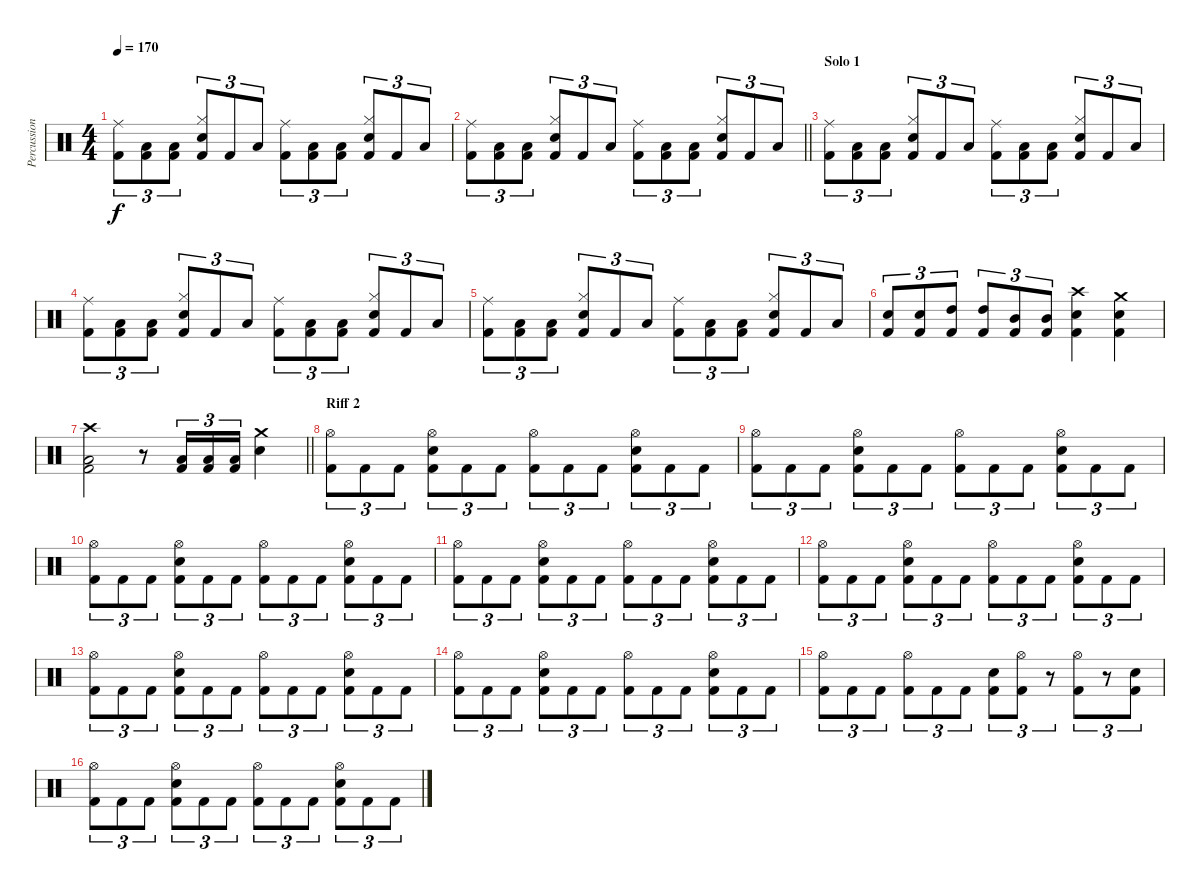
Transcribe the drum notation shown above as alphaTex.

\track ("Percussions" "Percussion") {instrument percussion}
\staff {score}
\articulation defaults
\ts (4 4)
\tempo 170
\clef neutral
\ks c
("Ride (middle)" "Kick (hit) 2").8{tu (3 2) dy f} ("Low Floor Tom (hit)" "Kick (hit) 2").8{tu (3 2)} ("Low Floor Tom (hit)" "Kick (hit) 2").8{tu (3 2)} ("Hi-Hat (closed)" "Snare (hit) 2" "Kick (hit) 2").8{tu (3 2)} "Kick (hit) 2".8{tu (3 2)} "Low Floor Tom (hit)".8{tu (3 2)} ("Ride (middle)" "Kick (hit) 2").8{tu (3 2)} ("Low Floor Tom (hit)" "Kick (hit) 2").8{tu (3 2)} ("Low Floor Tom (hit)" "Kick (hit) 2").8{tu (3 2)} ("Hi-Hat (closed)" "Snare (hit) 2" "Kick (hit) 2").8{tu (3 2)} "Kick (hit) 2".8{tu (3 2)} "Low Floor Tom (hit)".8{tu (3 2)} |
\barLineRight lightlight
("Ride (middle)" "Kick (hit) 2").8{tu (3 2)} ("Low Floor Tom (hit)" "Kick (hit) 2").8{tu (3 2)} ("Low Floor Tom (hit)" "Kick (hit) 2").8{tu (3 2)} ("Hi-Hat (closed)" "Snare (hit) 2" "Kick (hit) 2").8{tu (3 2)} "Kick (hit) 2".8{tu (3 2)} "Low Floor Tom (hit)".8{tu (3 2)} ("Ride (middle)" "Kick (hit) 2").8{tu (3 2)} ("Low Floor Tom (hit)" "Kick (hit) 2").8{tu (3 2)} ("Low Floor Tom (hit)" "Kick (hit) 2").8{tu (3 2)} ("Hi-Hat (closed)" "Snare (hit) 2" "Kick (hit) 2").8{tu (3 2)} "Kick (hit) 2".8{tu (3 2)} "Low Floor Tom (hit)".8{tu (3 2)} |
\section ("" "Solo 1")
("Ride (middle)" "Kick (hit) 2").8{tu (3 2)} ("Low Floor Tom (hit)" "Kick (hit) 2").8{tu (3 2)} ("Low Floor Tom (hit)" "Kick (hit) 2").8{tu (3 2)} ("Hi-Hat (closed)" "Snare (hit) 2" "Kick (hit) 2").8{tu (3 2)} "Kick (hit) 2".8{tu (3 2)} "Low Floor Tom (hit)".8{tu (3 2)} ("Ride (middle)" "Kick (hit) 2").8{tu (3 2)} ("Low Floor Tom (hit)" "Kick (hit) 2").8{tu (3 2)} ("Low Floor Tom (hit)" "Kick (hit) 2").8{tu (3 2)} ("Hi-Hat (closed)" "Snare (hit) 2" "Kick (hit) 2").8{tu (3 2)} "Kick (hit) 2".8{tu (3 2)} "Low Floor Tom (hit)".8{tu (3 2)} |
("Ride (middle)" "Kick (hit) 2").8{tu (3 2)} ("Low Floor Tom (hit)" "Kick (hit) 2").8{tu (3 2)} ("Low Floor Tom (hit)" "Kick (hit) 2").8{tu (3 2)} ("Hi-Hat (closed)" "Snare (hit) 2" "Kick (hit) 2").8{tu (3 2)} "Kick (hit) 2".8{tu (3 2)} "Low Floor Tom (hit)".8{tu (3 2)} ("Ride (middle)" "Kick (hit) 2").8{tu (3 2)} ("Low Floor Tom (hit)" "Kick (hit) 2").8{tu (3 2)} ("Low Floor Tom (hit)" "Kick (hit) 2").8{tu (3 2)} ("Hi-Hat (closed)" "Snare (hit) 2" "Kick (hit) 2").8{tu (3 2)} "Kick (hit) 2".8{tu (3 2)} "Low Floor Tom (hit)".8{tu (3 2)} |
("Ride (middle)" "Kick (hit) 2").8{tu (3 2)} ("Low Floor Tom (hit)" "Kick (hit) 2").8{tu (3 2)} ("Low Floor Tom (hit)" "Kick (hit) 2").8{tu (3 2)} ("Hi-Hat (closed)" "Snare (hit) 2" "Kick (hit) 2").8{tu (3 2)} "Kick (hit) 2".8{tu (3 2)} "Low Floor Tom (hit)".8{tu (3 2)} ("Ride (middle)" "Kick (hit) 2").8{tu (3 2)} ("Low Floor Tom (hit)" "Kick (hit) 2").8{tu (3 2)} ("Low Floor Tom (hit)" "Kick (hit) 2").8{tu (3 2)} ("Hi-Hat (closed)" "Snare (hit) 2" "Kick (hit) 2").8{tu (3 2)} "Kick (hit) 2".8{tu (3 2)} "Low Floor Tom (hit)".8{tu (3 2)} |
("Snare (hit) 2" "Kick (hit) 2").8{tu (3 2)} ("Snare (hit) 2" "Kick (hit) 2").8{tu (3 2)} ("High Tom (hit)" "Kick (hit) 2").8{tu (3 2)} ("High Tom (hit)" "Kick (hit) 2").8{tu (3 2)} ("Mid Tom (hit)" "Kick (hit) 2").8{tu (3 2)} ("Mid Tom (hit)" "Kick (hit) 2").8{tu (3 2)} ("Crash high (hit)" "Snare (hit) 2" "Kick (hit) 2").4 ("Crash medium (hit)" "Snare (hit) 2" "Kick (hit) 2").4 |
\barLineRight lightlight
("Crash high (hit)" "Low Floor Tom (hit)" "Kick (hit) 2").2 r.8 ("Low Floor Tom (hit)" "Kick (hit) 2").16{tu (3 2)} ("Low Floor Tom (hit)" "Kick (hit) 2").16{tu (3 2)} ("Low Floor Tom (hit)" "Kick (hit) 2").16{tu (3 2)} ("Crash medium (hit)" "Snare (hit) 2").4 |
\section ("" "Riff 2")
("Hi-Hat (open)" "Kick (hit) 2").8{tu (3 2)} "Kick (hit) 2".8{tu (3 2)} "Kick (hit) 2".8{tu (3 2)} ("Hi-Hat (open)" "Snare (hit) 2" "Kick (hit) 2").8{tu (3 2)} "Kick (hit) 2".8{tu (3 2)} "Kick (hit) 2".8{tu (3 2)} ("Hi-Hat (open)" "Kick (hit) 2").8{tu (3 2)} "Kick (hit) 2".8{tu (3 2)} "Kick (hit) 2".8{tu (3 2)} ("Hi-Hat (open)" "Snare (hit) 2" "Kick (hit) 2").8{tu (3 2)} "Kick (hit) 2".8{tu (3 2)} "Kick (hit) 2".8{tu (3 2)} |
("Hi-Hat (open)" "Kick (hit) 2").8{tu (3 2)} "Kick (hit) 2".8{tu (3 2)} "Kick (hit) 2".8{tu (3 2)} ("Hi-Hat (open)" "Snare (hit) 2" "Kick (hit) 2").8{tu (3 2)} "Kick (hit) 2".8{tu (3 2)} "Kick (hit) 2".8{tu (3 2)} ("Hi-Hat (open)" "Kick (hit) 2").8{tu (3 2)} "Kick (hit) 2".8{tu (3 2)} "Kick (hit) 2".8{tu (3 2)} ("Hi-Hat (open)" "Snare (hit) 2" "Kick (hit) 2").8{tu (3 2)} "Kick (hit) 2".8{tu (3 2)} "Kick (hit) 2".8{tu (3 2)} |
("Hi-Hat (open)" "Kick (hit) 2").8{tu (3 2)} "Kick (hit) 2".8{tu (3 2)} "Kick (hit) 2".8{tu (3 2)} ("Hi-Hat (open)" "Snare (hit) 2" "Kick (hit) 2").8{tu (3 2)} "Kick (hit) 2".8{tu (3 2)} "Kick (hit) 2".8{tu (3 2)} ("Hi-Hat (open)" "Kick (hit) 2").8{tu (3 2)} "Kick (hit) 2".8{tu (3 2)} "Kick (hit) 2".8{tu (3 2)} ("Hi-Hat (open)" "Snare (hit) 2" "Kick (hit) 2").8{tu (3 2)} "Kick (hit) 2".8{tu (3 2)} "Kick (hit) 2".8{tu (3 2)} |
("Hi-Hat (open)" "Kick (hit) 2").8{tu (3 2)} "Kick (hit) 2".8{tu (3 2)} "Kick (hit) 2".8{tu (3 2)} ("Hi-Hat (open)" "Snare (hit) 2" "Kick (hit) 2").8{tu (3 2)} "Kick (hit) 2".8{tu (3 2)} "Kick (hit) 2".8{tu (3 2)} ("Hi-Hat (open)" "Kick (hit) 2").8{tu (3 2)} "Kick (hit) 2".8{tu (3 2)} "Kick (hit) 2".8{tu (3 2)} ("Hi-Hat (open)" "Snare (hit) 2" "Kick (hit) 2").8{tu (3 2)} "Kick (hit) 2".8{tu (3 2)} "Kick (hit) 2".8{tu (3 2)} |
("Hi-Hat (open)" "Kick (hit) 2").8{tu (3 2)} "Kick (hit) 2".8{tu (3 2)} "Kick (hit) 2".8{tu (3 2)} ("Hi-Hat (open)" "Snare (hit) 2" "Kick (hit) 2").8{tu (3 2)} "Kick (hit) 2".8{tu (3 2)} "Kick (hit) 2".8{tu (3 2)} ("Hi-Hat (open)" "Kick (hit) 2").8{tu (3 2)} "Kick (hit) 2".8{tu (3 2)} "Kick (hit) 2".8{tu (3 2)} ("Hi-Hat (open)" "Snare (hit) 2" "Kick (hit) 2").8{tu (3 2)} "Kick (hit) 2".8{tu (3 2)} "Kick (hit) 2".8{tu (3 2)} |
("Hi-Hat (open)" "Kick (hit) 2").8{tu (3 2)} "Kick (hit) 2".8{tu (3 2)} "Kick (hit) 2".8{tu (3 2)} ("Hi-Hat (open)" "Snare (hit) 2" "Kick (hit) 2").8{tu (3 2)} "Kick (hit) 2".8{tu (3 2)} "Kick (hit) 2".8{tu (3 2)} ("Hi-Hat (open)" "Kick (hit) 2").8{tu (3 2)} "Kick (hit) 2".8{tu (3 2)} "Kick (hit) 2".8{tu (3 2)} ("Hi-Hat (open)" "Snare (hit) 2" "Kick (hit) 2").8{tu (3 2)} "Kick (hit) 2".8{tu (3 2)} "Kick (hit) 2".8{tu (3 2)} |
("Hi-Hat (open)" "Kick (hit) 2").8{tu (3 2)} "Kick (hit) 2".8{tu (3 2)} "Kick (hit) 2".8{tu (3 2)} ("Hi-Hat (open)" "Snare (hit) 2" "Kick (hit) 2").8{tu (3 2)} "Kick (hit) 2".8{tu (3 2)} "Kick (hit) 2".8{tu (3 2)} ("Hi-Hat (open)" "Kick (hit) 2").8{tu (3 2)} "Kick (hit) 2".8{tu (3 2)} "Kick (hit) 2".8{tu (3 2)} ("Hi-Hat (open)" "Snare (hit) 2" "Kick (hit) 2").8{tu (3 2)} "Kick (hit) 2".8{tu (3 2)} "Kick (hit) 2".8{tu (3 2)} |
("Hi-Hat (open)" "Kick (hit) 2").8{tu (3 2)} "Kick (hit) 2".8{tu (3 2)} "Kick (hit) 2".8{tu (3 2)} ("Hi-Hat (open)" "Kick (hit) 2").8{tu (3 2)} "Kick (hit) 2".8{tu (3 2)} "Kick (hit) 2".8{tu (3 2)} ("Snare (hit) 2" "Kick (hit) 2").8{tu (3 2)} ("Hi-Hat (open)" "Kick (hit) 2").8{tu (3 2)} r.8{tu (3 2)} ("Hi-Hat (open)" "Kick (hit) 2").8{tu (3 2)} r.8{tu (3 2)} ("Snare (hit) 2" "Kick (hit) 2").8{tu (3 2)} |
("Hi-Hat (open)" "Kick (hit) 2").8{tu (3 2)} "Kick (hit) 2".8{tu (3 2)} "Kick (hit) 2".8{tu (3 2)} ("Hi-Hat (open)" "Snare (hit) 2" "Kick (hit) 2").8{tu (3 2)} "Kick (hit) 2".8{tu (3 2)} "Kick (hit) 2".8{tu (3 2)} ("Hi-Hat (open)" "Kick (hit) 2").8{tu (3 2)} "Kick (hit) 2".8{tu (3 2)} "Kick (hit) 2".8{tu (3 2)} ("Hi-Hat (open)" "Snare (hit) 2" "Kick (hit) 2").8{tu (3 2)} "Kick (hit) 2".8{tu (3 2)} "Kick (hit) 2".8{tu (3 2)}
